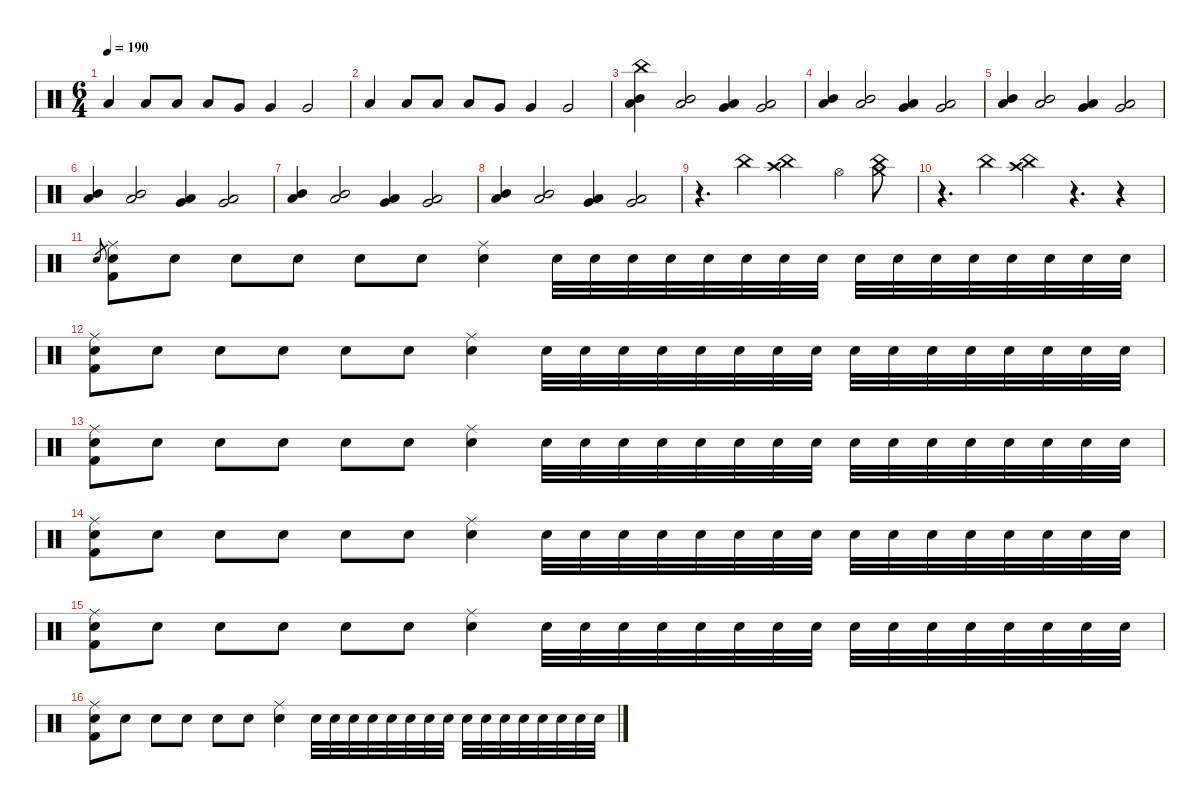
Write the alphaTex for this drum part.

\defaultSystemsLayout 4
\hideDynamics
\bracketExtendMode nobrackets
\singleTrackTrackNamePolicy hidden
\multiTrackTrackNamePolicy hidden
\firstSystemTrackNameMode fullname
\firstSystemTrackNameOrientation horizontal
\otherSystemsTrackNameOrientation horizontal
\track ("Drums" "drm.") {instrument percussion}
\staff {score}
\articulation defaults
\ts (6 4)
\tempo 190
\clef neutral
\ks c "Low Tom (hit)".4{dy mf beam Up} "Low Tom (hit)".8{dy mp beam Up} "Low Tom (hit)".8{beam Up} "Low Tom (hit)".8{beam Up} "Very Low Tom (hit)".8{beam Up} "Very Low Tom (hit)".4{beam Up} "Very Low Tom (hit)".2{dy mf beam Up}
|
"Low Tom (hit)".4{beam Up} "Low Tom (hit)".8{dy mp beam Up} "Low Tom (hit)".8{beam Up} "Low Tom (hit)".8{beam Up} "Very Low Tom (hit)".8{beam Up} "Very Low Tom (hit)".4{beam Up} "Very Low Tom (hit)".2{dy mf beam Up} |
("China (hit)" "Mid Tom (hit)" "Low Tom (hit)").4{beam Down} ("Mid Tom (hit)" "Low Tom (hit)").2{beam Up} ("Low Tom (hit)" "Very Low Tom (hit)").4{beam Up} ("Low Tom (hit)" "Very Low Tom (hit)").2{beam Up} |
("Mid Tom (hit)" "Low Tom (hit)").4{beam Up} ("Mid Tom (hit)" "Low Tom (hit)").2{beam Up} ("Low Tom (hit)" "Very Low Tom (hit)").4{beam Up} ("Low Tom (hit)" "Very Low Tom (hit)").2{beam Up} |
("Mid Tom (hit)" "Low Tom (hit)").4{beam Up} ("Mid Tom (hit)" "Low Tom (hit)").2{beam Up} ("Low Tom (hit)" "Very Low Tom (hit)").4{beam Up} ("Low Tom (hit)" "Very Low Tom (hit)").2{beam Up} |
("Mid Tom (hit)" "Low Tom (hit)").4{beam Up} ("Mid Tom (hit)" "Low Tom (hit)").2{beam Up} ("Low Tom (hit)" "Very Low Tom (hit)").4{beam Up} ("Low Tom (hit)" "Very Low Tom (hit)").2{beam Up} |
("Mid Tom (hit)" "Low Tom (hit)").4{beam Up} ("Mid Tom (hit)" "Low Tom (hit)").2{beam Up} ("Low Tom (hit)" "Very Low Tom (hit)").4{beam Up} ("Low Tom (hit)" "Very Low Tom (hit)").2{beam Up} |
("Mid Tom (hit)" "Low Tom (hit)").4{beam Up} ("Mid Tom (hit)" "Low Tom (hit)").2{beam Up} ("Low Tom (hit)" "Very Low Tom (hit)").4{beam Up} ("Low Tom (hit)" "Very Low Tom (hit)").2{beam Up} |
r.4{d beam Down} "China (hit)".4{beam Down} ("China (hit)" "Crash high (hit)").2{beam Down} "Hi-Hat (open)".4{dy mp beam Down} ("China (hit)" "Crash medium (hit)").8{dy mf beam Down} |
r.4{d beam Down} "China (hit)".4{beam Down} ("China (hit)" "Crash high (hit)").4{dy mp beam Down} r.4{d beam Down} r.4{beam Down} |
"Electric Snare (hit)".8{gr dy pp beam Up} ("Ride (middle)" "Snare (hit) 2" "Kick (hit) 2").8{dy mf beam Down} "Snare (hit) 2".8{dy mp beam Down} "Snare (hit) 2".8{beam Down} "Snare (hit) 2".8{beam Down} "Snare (hit) 2".8{dy p beam Down} "Snare (hit) 2".8{beam Down} ("Ride (middle)" "Snare (hit) 2").4{dy mf beam Down} "Snare (hit) 2".32{dy p beam Down} "Snare (hit) 2".32{beam Down} "Snare (hit) 2".32{beam Down} "Snare (hit) 2".32{beam Down} "Snare (hit) 2".32{beam Down} "Snare (hit) 2".32{beam Down} "Snare (hit) 2".32{beam Down} "Snare (hit) 2".32{dy pp beam Down} "Snare (hit) 2".32{beam Down} "Snare (hit) 2".32{beam Down} "Snare (hit) 2".32{dy p beam Down} "Snare (hit) 2".32{beam Down} "Snare (hit) 2".32{beam Down} "Snare (hit) 2".32{beam Down} "Snare (hit) 2".32{beam Down} "Snare (hit) 2".32{beam Down} |
("Ride (middle)" "Snare (hit) 2" "Kick (hit) 2").8{dy f beam Down} "Snare (hit) 2".8{dy mp beam Down} "Snare (hit) 2".8{beam Down} "Snare (hit) 2".8{beam Down} "Snare (hit) 2".8{dy p beam Down} "Snare (hit) 2".8{beam Down} ("Ride (middle)" "Snare (hit) 2").4{dy mf beam Down} "Snare (hit) 2".32{dy p beam Down} "Snare (hit) 2".32{beam Down} "Snare (hit) 2".32{beam Down} "Snare (hit) 2".32{beam Down} "Snare (hit) 2".32{beam Down} "Snare (hit) 2".32{beam Down} "Snare (hit) 2".32{beam Down} "Snare (hit) 2".32{dy pp beam Down} "Snare (hit) 2".32{beam Down} "Snare (hit) 2".32{beam Down} "Snare (hit) 2".32{dy p beam Down} "Snare (hit) 2".32{beam Down} "Snare (hit) 2".32{beam Down} "Snare (hit) 2".32{beam Down} "Snare (hit) 2".32{beam Down} "Snare (hit) 2".32{beam Down} |
("Ride (middle)" "Snare (hit) 2" "Kick (hit) 2").8{dy f beam Down} "Snare (hit) 2".8{dy mp beam Down} "Snare (hit) 2".8{beam Down} "Snare (hit) 2".8{beam Down} "Snare (hit) 2".8{dy p beam Down} "Snare (hit) 2".8{beam Down} ("Ride (middle)" "Snare (hit) 2").4{dy mf beam Down} "Snare (hit) 2".32{dy p beam Down} "Snare (hit) 2".32{beam Down} "Snare (hit) 2".32{beam Down} "Snare (hit) 2".32{beam Down} "Snare (hit) 2".32{beam Down} "Snare (hit) 2".32{beam Down} "Snare (hit) 2".32{beam Down} "Snare (hit) 2".32{dy pp beam Down} "Snare (hit) 2".32{beam Down} "Snare (hit) 2".32{beam Down} "Snare (hit) 2".32{dy p beam Down} "Snare (hit) 2".32{beam Down} "Snare (hit) 2".32{beam Down} "Snare (hit) 2".32{beam Down} "Snare (hit) 2".32{beam Down} "Snare (hit) 2".32{beam Down} |
("Ride (middle)" "Snare (hit) 2" "Kick (hit) 2").8{dy f beam Down} "Snare (hit) 2".8{dy mp beam Down} "Snare (hit) 2".8{beam Down} "Snare (hit) 2".8{beam Down} "Snare (hit) 2".8{dy p beam Down} "Snare (hit) 2".8{beam Down} ("Ride (middle)" "Snare (hit) 2").4{dy mf beam Down} "Snare (hit) 2".32{dy p beam Down} "Snare (hit) 2".32{beam Down} "Snare (hit) 2".32{beam Down} "Snare (hit) 2".32{beam Down} "Snare (hit) 2".32{beam Down} "Snare (hit) 2".32{beam Down} "Snare (hit) 2".32{beam Down} "Snare (hit) 2".32{dy pp beam Down} "Snare (hit) 2".32{beam Down} "Snare (hit) 2".32{beam Down} "Snare (hit) 2".32{dy p beam Down} "Snare (hit) 2".32{beam Down} "Snare (hit) 2".32{beam Down} "Snare (hit) 2".32{beam Down} "Snare (hit) 2".32{beam Down} "Snare (hit) 2".32{beam Down} |
("Ride (middle)" "Snare (hit) 2" "Kick (hit) 2").8{dy f beam Down} "Snare (hit) 2".8{dy mp beam Down} "Snare (hit) 2".8{beam Down} "Snare (hit) 2".8{beam Down} "Snare (hit) 2".8{dy p beam Down} "Snare (hit) 2".8{beam Down} ("Ride (middle)" "Snare (hit) 2").4{dy mf beam Down} "Snare (hit) 2".32{dy p beam Down} "Snare (hit) 2".32{beam Down} "Snare (hit) 2".32{beam Down} "Snare (hit) 2".32{beam Down} "Snare (hit) 2".32{beam Down} "Snare (hit) 2".32{beam Down} "Snare (hit) 2".32{beam Down} "Snare (hit) 2".32{dy pp beam Down} "Snare (hit) 2".32{beam Down} "Snare (hit) 2".32{beam Down} "Snare (hit) 2".32{dy p beam Down} "Snare (hit) 2".32{beam Down} "Snare (hit) 2".32{beam Down} "Snare (hit) 2".32{beam Down} "Snare (hit) 2".32{beam Down} "Snare (hit) 2".32{beam Down} |
("Ride (middle)" "Snare (hit) 2" "Kick (hit) 2").8{dy f beam Down} "Snare (hit) 2".8{dy mp beam Down} "Snare (hit) 2".8{beam Down} "Snare (hit) 2".8{beam Down} "Snare (hit) 2".8{dy p beam Down} "Snare (hit) 2".8{beam Down} ("Ride (middle)" "Snare (hit) 2").4{dy mf beam Down} "Snare (hit) 2".32{dy p beam Down} "Snare (hit) 2".32{beam Down} "Snare (hit) 2".32{beam Down} "Snare (hit) 2".32{beam Down} "Snare (hit) 2".32{beam Down} "Snare (hit) 2".32{beam Down} "Snare (hit) 2".32{beam Down} "Snare (hit) 2".32{dy pp beam Down} "Snare (hit) 2".32{beam Down} "Snare (hit) 2".32{beam Down} "Snare (hit) 2".32{dy p beam Down} "Snare (hit) 2".32{beam Down} "Snare (hit) 2".32{beam Down} "Snare (hit) 2".32{beam Down} "Snare (hit) 2".32{beam Down} "Snare (hit) 2".32{beam Down}
